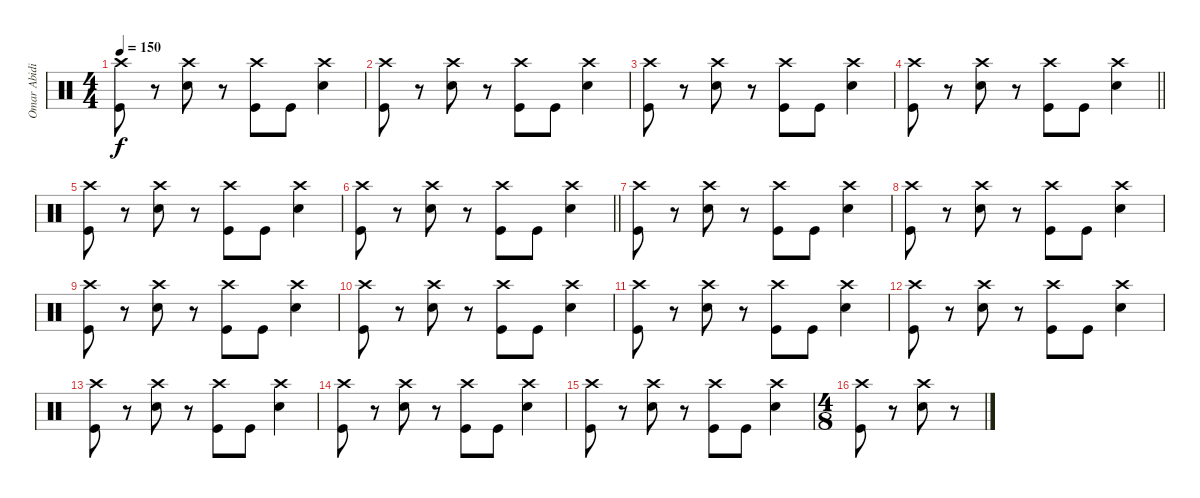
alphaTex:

\track ("Omar Abidi" "Omar Abidi") {instrument percussion}
\staff {score}
\articulation defaults
\ts (4 4)
\tempo 150
\clef neutral
\ks c
("Crash high (hit)" "Kick (hit)").8{dy f} r.8 ("Crash high (hit)" "Snare (hit) 2").8 r.8 ("Crash high (hit)" "Kick (hit)").8 "Kick (hit)".8 ("Crash high (hit)" "Snare (hit) 2").4 |
("Crash high (hit)" "Kick (hit)").8 r.8 ("Crash high (hit)" "Snare (hit) 2").8 r.8 ("Crash high (hit)" "Kick (hit)").8 "Kick (hit)".8 ("Crash high (hit)" "Snare (hit) 2").4 |
("Crash high (hit)" "Kick (hit)").8 r.8 ("Crash high (hit)" "Snare (hit) 2").8 r.8 ("Crash high (hit)" "Kick (hit)").8 "Kick (hit)".8 ("Crash high (hit)" "Snare (hit) 2").4 |
\barLineRight lightlight
("Crash high (hit)" "Kick (hit)").8 r.8 ("Crash high (hit)" "Snare (hit) 2").8 r.8 ("Crash high (hit)" "Kick (hit)").8 "Kick (hit)".8 ("Crash high (hit)" "Snare (hit) 2").4 |
("Crash high (hit)" "Kick (hit)").8 r.8 ("Crash high (hit)" "Snare (hit) 2").8 r.8 ("Crash high (hit)" "Kick (hit)").8 "Kick (hit)".8 ("Crash high (hit)" "Snare (hit) 2").4 |
\barLineRight lightlight
("Crash high (hit)" "Kick (hit)").8 r.8 ("Crash high (hit)" "Snare (hit) 2").8 r.8 ("Crash high (hit)" "Kick (hit)").8 "Kick (hit)".8 ("Crash high (hit)" "Snare (hit) 2").4 |
("Crash high (hit)" "Kick (hit)").8 r.8 ("Crash high (hit)" "Snare (hit) 2").8 r.8 ("Crash high (hit)" "Kick (hit)").8 "Kick (hit)".8 ("Crash high (hit)" "Snare (hit) 2").4 |
("Crash high (hit)" "Kick (hit)").8 r.8 ("Crash high (hit)" "Snare (hit) 2").8 r.8 ("Crash high (hit)" "Kick (hit)").8 "Kick (hit)".8 ("Crash high (hit)" "Snare (hit) 2").4 |
("Crash high (hit)" "Kick (hit)").8 r.8 ("Crash high (hit)" "Snare (hit) 2").8 r.8 ("Crash high (hit)" "Kick (hit)").8 "Kick (hit)".8 ("Crash high (hit)" "Snare (hit) 2").4 |
("Crash high (hit)" "Kick (hit)").8 r.8 ("Crash high (hit)" "Snare (hit) 2").8 r.8 ("Crash high (hit)" "Kick (hit)").8 "Kick (hit)".8 ("Crash high (hit)" "Snare (hit) 2").4 |
("Crash high (hit)" "Kick (hit)").8 r.8 ("Crash high (hit)" "Snare (hit) 2").8 r.8 ("Crash high (hit)" "Kick (hit)").8 "Kick (hit)".8 ("Crash high (hit)" "Snare (hit) 2").4 |
("Crash high (hit)" "Kick (hit)").8 r.8 ("Crash high (hit)" "Snare (hit) 2").8 r.8 ("Crash high (hit)" "Kick (hit)").8 "Kick (hit)".8 ("Crash high (hit)" "Snare (hit) 2").4 |
("Crash high (hit)" "Kick (hit)").8 r.8 ("Crash high (hit)" "Snare (hit) 2").8 r.8 ("Crash high (hit)" "Kick (hit)").8 "Kick (hit)".8 ("Crash high (hit)" "Snare (hit) 2").4 |
("Crash high (hit)" "Kick (hit)").8 r.8 ("Crash high (hit)" "Snare (hit) 2").8 r.8 ("Crash high (hit)" "Kick (hit)").8 "Kick (hit)".8 ("Crash high (hit)" "Snare (hit) 2").4 |
("Crash high (hit)" "Kick (hit)").8 r.8 ("Crash high (hit)" "Snare (hit) 2").8 r.8 ("Crash high (hit)" "Kick (hit)").8 "Kick (hit)".8 ("Crash high (hit)" "Snare (hit) 2").4 |
\ts (4 8)
("Crash high (hit)" "Kick (hit)").8 r.8 ("Crash high (hit)" "Snare (hit) 2").8 r.8
